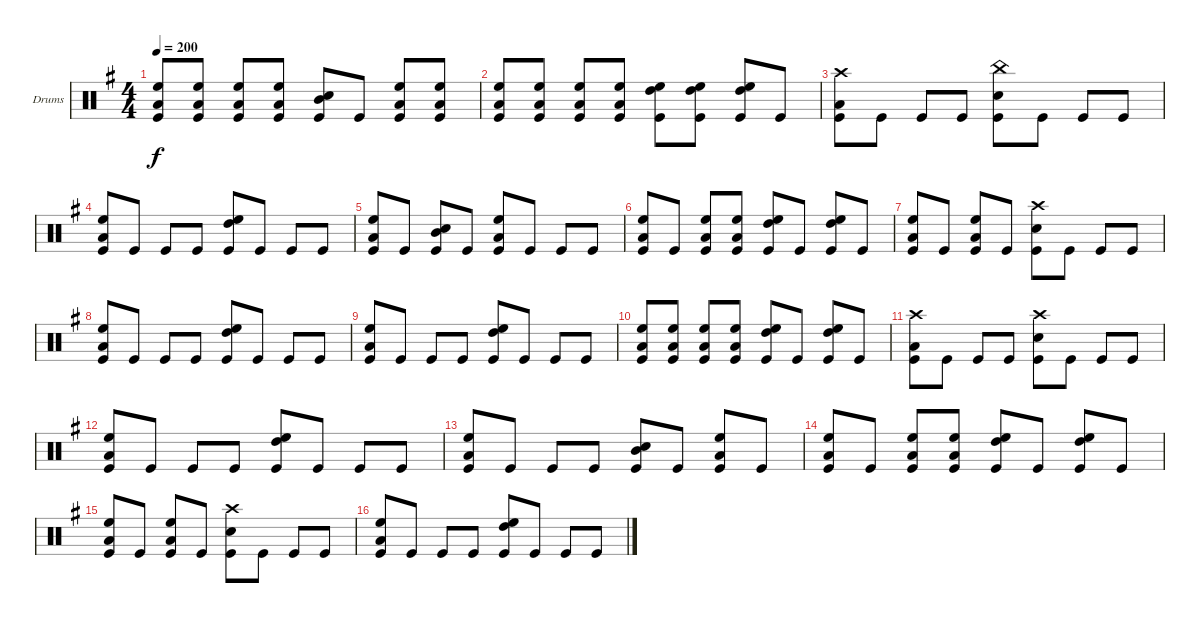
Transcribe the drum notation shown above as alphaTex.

\bracketExtendMode groupsimilarinstruments
\firstSystemTrackNameOrientation horizontal
\otherSystemsTrackNameOrientation horizontal
\track ("Drumkit" "Drums") {instrument percussion}
\staff {score}
\articulation defaults
\ts (4 4)
\tempo 200
\clef neutral
\ks g
("High Floor Tom (hit)" "Low Tom (hit)" "Kick (hit)").8{dy f} ("High Floor Tom (hit)" "Low Tom (hit)" "Kick (hit)").8 ("High Floor Tom (hit)" "Low Tom (hit)" "Kick (hit)").8 ("High Floor Tom (hit)" "Low Tom (hit)" "Kick (hit)").8 ("Snare (hit) 2" "Mid Tom (hit)" "Kick (hit)").8 "Kick (hit)".8 ("High Floor Tom (hit)" "Low Tom (hit)" "Kick (hit)").8 ("High Floor Tom (hit)" "Low Tom (hit)" "Kick (hit)").8 |
("Low Tom (hit)" "High Floor Tom (hit)" "Kick (hit)").8 ("Low Tom (hit)" "High Floor Tom (hit)" "Kick (hit)").8 ("Low Tom (hit)" "High Floor Tom (hit)" "Kick (hit)").8 ("Low Tom (hit)" "High Floor Tom (hit)" "Kick (hit)").8 ("High Floor Tom (hit)" "High Tom (hit)" "Kick (hit)").8 ("High Floor Tom (hit)" "High Tom (hit)" "Kick (hit)").8 ("High Tom (hit)" "High Floor Tom (hit)" "Kick (hit)").8 "Kick (hit)".8 |
("Low Tom (hit)" "Crash high (hit)" "Kick (hit)").8 "Kick (hit)".8 "Kick (hit)".8 "Kick (hit)".8 ("China (hit)" "Snare (hit) 2" "Kick (hit)").8 "Kick (hit)".8 "Kick (hit)".8 "Kick (hit)".8 |
("High Floor Tom (hit)" "Low Tom (hit)" "Kick (hit)").8 "Kick (hit)".8 "Kick (hit)".8 "Kick (hit)".8 ("High Tom (hit)" "High Floor Tom (hit)" "Kick (hit)").8 "Kick (hit)".8 "Kick (hit)".8 "Kick (hit)".8 |
("Low Tom (hit)" "High Floor Tom (hit)" "Kick (hit)").8 "Kick (hit)".8 ("Snare (hit) 2" "Mid Tom (hit)" "Kick (hit)").8 "Kick (hit)".8 ("High Floor Tom (hit)" "Low Tom (hit)" "Kick (hit)").8 "Kick (hit)".8 "Kick (hit)".8 "Kick (hit)".8 |
("Low Tom (hit)" "High Floor Tom (hit)" "Kick (hit)").8 "Kick (hit)".8 ("High Floor Tom (hit)" "Low Tom (hit)" "Kick (hit)").8 ("High Floor Tom (hit)" "Low Tom (hit)" "Kick (hit)").8 ("High Tom (hit)" "High Floor Tom (hit)" "Kick (hit)").8 "Kick (hit)".8 ("High Tom (hit)" "High Floor Tom (hit)" "Kick (hit)").8 "Kick (hit)".8 |
("Low Tom (hit)" "High Floor Tom (hit)" "Kick (hit)").8 "Kick (hit)".8 ("Low Tom (hit)" "High Floor Tom (hit)" "Kick (hit)").8 "Kick (hit)".8 ("Crash high (hit)" "Snare (hit) 2" "Kick (hit)").8 "Kick (hit)".8 "Kick (hit)".8 "Kick (hit)".8 |
("High Floor Tom (hit)" "Low Tom (hit)" "Kick (hit)").8 "Kick (hit)".8 "Kick (hit)".8 "Kick (hit)".8 ("High Tom (hit)" "High Floor Tom (hit)" "Kick (hit)").8 "Kick (hit)".8 "Kick (hit)".8 "Kick (hit)".8 |
("High Floor Tom (hit)" "Low Tom (hit)" "Kick (hit)").8 "Kick (hit)".8 "Kick (hit)".8 "Kick (hit)".8 ("High Tom (hit)" "High Floor Tom (hit)" "Kick (hit)").8 "Kick (hit)".8 "Kick (hit)".8 "Kick (hit)".8 |
("High Floor Tom (hit)" "Low Tom (hit)" "Kick (hit)").8 ("High Floor Tom (hit)" "Low Tom (hit)" "Kick (hit)").8 ("High Floor Tom (hit)" "Low Tom (hit)" "Kick (hit)").8 ("High Floor Tom (hit)" "Low Tom (hit)" "Kick (hit)").8 ("High Tom (hit)" "High Floor Tom (hit)" "Kick (hit)").8 "Kick (hit)".8 ("High Tom (hit)" "High Floor Tom (hit)" "Kick (hit)").8 "Kick (hit)".8 |
("Low Tom (hit)" "Crash high (hit)" "Kick (hit)").8 "Kick (hit)".8 "Kick (hit)".8 "Kick (hit)".8 ("Crash high (hit)" "Snare (hit) 2" "Kick (hit)").8 "Kick (hit)".8 "Kick (hit)".8 "Kick (hit)".8 |
("High Floor Tom (hit)" "Low Tom (hit)" "Kick (hit)").8 "Kick (hit)".8 "Kick (hit)".8 "Kick (hit)".8 ("High Tom (hit)" "High Floor Tom (hit)" "Kick (hit)").8 "Kick (hit)".8 "Kick (hit)".8 "Kick (hit)".8 |
("Low Tom (hit)" "High Floor Tom (hit)" "Kick (hit)").8 "Kick (hit)".8 "Kick (hit)".8 "Kick (hit)".8 ("Snare (hit) 2" "Mid Tom (hit)" "Kick (hit)").8 "Kick (hit)".8 ("High Floor Tom (hit)" "Low Tom (hit)" "Kick (hit)").8 "Kick (hit)".8 |
("Low Tom (hit)" "High Floor Tom (hit)" "Kick (hit)").8 "Kick (hit)".8 ("High Floor Tom (hit)" "Low Tom (hit)" "Kick (hit)").8 ("High Floor Tom (hit)" "Low Tom (hit)" "Kick (hit)").8 ("High Tom (hit)" "High Floor Tom (hit)" "Kick (hit)").8 "Kick (hit)".8 ("High Tom (hit)" "High Floor Tom (hit)" "Kick (hit)").8 "Kick (hit)".8 |
("Low Tom (hit)" "High Floor Tom (hit)" "Kick (hit)").8 "Kick (hit)".8 ("Low Tom (hit)" "High Floor Tom (hit)" "Kick (hit)").8 "Kick (hit)".8 ("Crash high (hit)" "Snare (hit) 2" "Kick (hit)").8 "Kick (hit)".8 "Kick (hit)".8 "Kick (hit)".8 |
("High Floor Tom (hit)" "Low Tom (hit)" "Kick (hit)").8 "Kick (hit)".8 "Kick (hit)".8 "Kick (hit)".8 ("High Tom (hit)" "High Floor Tom (hit)" "Kick (hit)").8 "Kick (hit)".8 "Kick (hit)".8 "Kick (hit)".8
